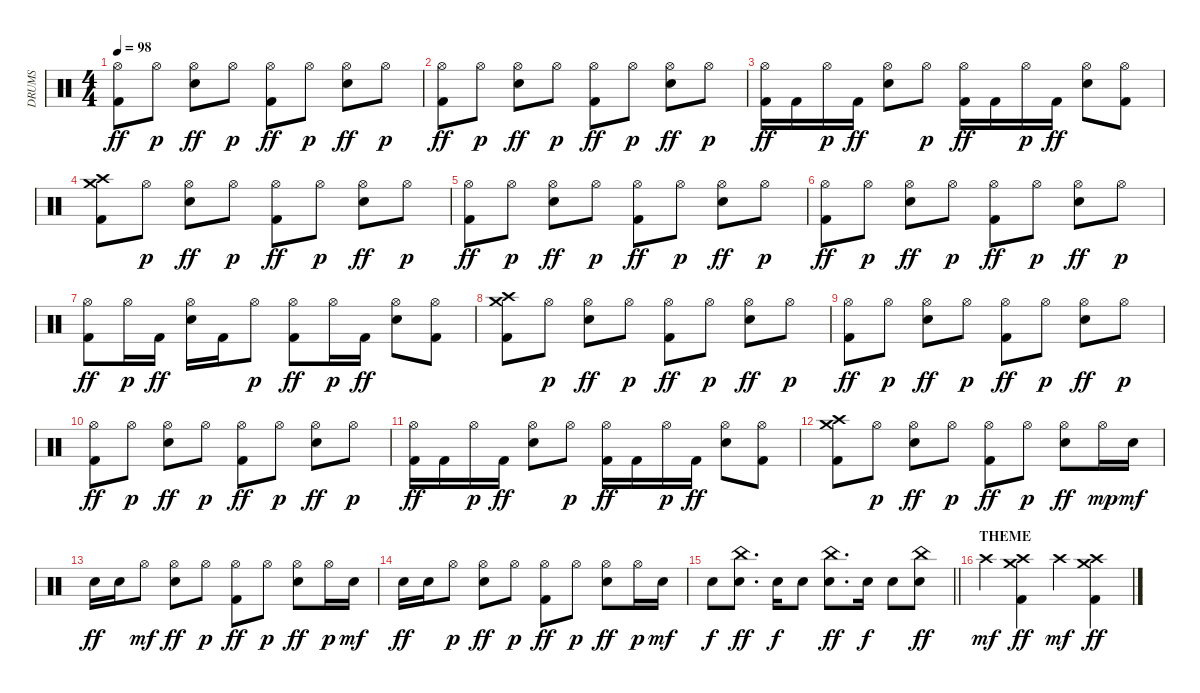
\track ("DRUMS" "DRUMS") {instrument percussion}
\staff {score}
\articulation defaults
\ts (4 4)
\tempo 98
\clef neutral
\ks c
("Hi-Hat (open)" "Kick (hit) 2").8{dy ff} "Hi-Hat (open)".8{dy p} ("Hi-Hat (open)" "Snare (hit) 2").8{dy ff} "Hi-Hat (open)".8{dy p} ("Hi-Hat (open)" "Kick (hit) 2").8{dy ff} "Hi-Hat (open)".8{dy p} ("Hi-Hat (open)" "Snare (hit) 2").8{dy ff} "Hi-Hat (open)".8{dy p} |
("Hi-Hat (open)" "Kick (hit) 2").8{dy ff} "Hi-Hat (open)".8{dy p} ("Hi-Hat (open)" "Snare (hit) 2").8{dy ff} "Hi-Hat (open)".8{dy p} ("Hi-Hat (open)" "Kick (hit) 2").8{dy ff} "Hi-Hat (open)".8{dy p} ("Hi-Hat (open)" "Snare (hit) 2").8{dy ff} "Hi-Hat (open)".8{dy p} |
("Hi-Hat (open)" "Kick (hit) 2").16{dy ff} "Kick (hit) 2".16 "Hi-Hat (open)".16{dy p} "Kick (hit) 2".16{dy ff} ("Hi-Hat (open)" "Snare (hit) 2").8 "Hi-Hat (open)".8{dy p} ("Hi-Hat (open)" "Kick (hit) 2").16{dy ff} "Kick (hit) 2".16 "Hi-Hat (open)".16{dy p} "Kick (hit) 2".16{dy ff} ("Hi-Hat (open)" "Snare (hit) 2").8 ("Hi-Hat (open)" "Kick (hit) 2").8 |
("Crash high (hit)" "Crash medium (hit)" "Kick (hit) 2").8 "Hi-Hat (open)".8{dy p} ("Hi-Hat (open)" "Snare (hit) 2").8{dy ff} "Hi-Hat (open)".8{dy p} ("Hi-Hat (open)" "Kick (hit) 2").8{dy ff} "Hi-Hat (open)".8{dy p} ("Hi-Hat (open)" "Snare (hit) 2").8{dy ff} "Hi-Hat (open)".8{dy p} |
("Hi-Hat (open)" "Kick (hit) 2").8{dy ff} "Hi-Hat (open)".8{dy p} ("Hi-Hat (open)" "Snare (hit) 2").8{dy ff} "Hi-Hat (open)".8{dy p} ("Hi-Hat (open)" "Kick (hit) 2").8{dy ff} "Hi-Hat (open)".8{dy p} ("Hi-Hat (open)" "Snare (hit) 2").8{dy ff} "Hi-Hat (open)".8{dy p} |
("Hi-Hat (open)" "Kick (hit) 2").8{dy ff} "Hi-Hat (open)".8{dy p} ("Hi-Hat (open)" "Snare (hit) 2").8{dy ff} "Hi-Hat (open)".8{dy p} ("Hi-Hat (open)" "Kick (hit) 2").8{dy ff} "Hi-Hat (open)".8{dy p} ("Hi-Hat (open)" "Snare (hit) 2").8{dy ff} "Hi-Hat (open)".8{dy p} |
("Hi-Hat (open)" "Kick (hit) 2").8{dy ff} "Hi-Hat (open)".16{dy p} "Kick (hit) 2".16{dy ff} ("Hi-Hat (open)" "Snare (hit) 2").16 "Kick (hit) 2".16 "Hi-Hat (open)".8{dy p} ("Hi-Hat (open)" "Kick (hit) 2").8{dy ff} "Hi-Hat (open)".16{dy p} "Kick (hit) 2".16{dy ff} ("Hi-Hat (open)" "Snare (hit) 2").8 ("Hi-Hat (open)" "Kick (hit) 2").8 |
("Crash high (hit)" "Crash medium (hit)" "Kick (hit) 2").8 "Hi-Hat (open)".8{dy p} ("Hi-Hat (open)" "Snare (hit) 2").8{dy ff} "Hi-Hat (open)".8{dy p} ("Hi-Hat (open)" "Kick (hit) 2").8{dy ff} "Hi-Hat (open)".8{dy p} ("Hi-Hat (open)" "Snare (hit) 2").8{dy ff} "Hi-Hat (open)".8{dy p} |
("Hi-Hat (open)" "Kick (hit) 2").8{dy ff} "Hi-Hat (open)".8{dy p} ("Hi-Hat (open)" "Snare (hit) 2").8{dy ff} "Hi-Hat (open)".8{dy p} ("Hi-Hat (open)" "Kick (hit) 2").8{dy ff} "Hi-Hat (open)".8{dy p} ("Hi-Hat (open)" "Snare (hit) 2").8{dy ff} "Hi-Hat (open)".8{dy p} |
("Hi-Hat (open)" "Kick (hit) 2").8{dy ff} "Hi-Hat (open)".8{dy p} ("Hi-Hat (open)" "Snare (hit) 2").8{dy ff} "Hi-Hat (open)".8{dy p} ("Hi-Hat (open)" "Kick (hit) 2").8{dy ff} "Hi-Hat (open)".8{dy p} ("Hi-Hat (open)" "Snare (hit) 2").8{dy ff} "Hi-Hat (open)".8{dy p} |
("Hi-Hat (open)" "Kick (hit) 2").16{dy ff} "Kick (hit) 2".16 "Hi-Hat (open)".16{dy p} "Kick (hit) 2".16{dy ff} ("Hi-Hat (open)" "Snare (hit) 2").8 "Hi-Hat (open)".8{dy p} ("Hi-Hat (open)" "Kick (hit) 2").16{dy ff} "Kick (hit) 2".16 "Hi-Hat (open)".16{dy p} "Kick (hit) 2".16{dy ff} ("Hi-Hat (open)" "Snare (hit) 2").8 ("Hi-Hat (open)" "Kick (hit) 2").8 |
("Crash high (hit)" "Crash medium (hit)" "Kick (hit) 2").8 "Hi-Hat (open)".8{dy p} ("Hi-Hat (open)" "Snare (hit) 2").8{dy ff} "Hi-Hat (open)".8{dy p} ("Hi-Hat (open)" "Kick (hit) 2").8{dy ff} "Hi-Hat (open)".8{dy p} ("Hi-Hat (open)" "Snare (hit) 2").8{dy ff} "Hi-Hat (open)".16{dy mp} "Snare (hit) 2".16{dy mf} |
"Snare (hit) 2".16{dy ff} "Snare (hit) 2".16 "Hi-Hat (open)".8{dy mf} ("Hi-Hat (open)" "Snare (hit) 2").8{dy ff} "Hi-Hat (open)".8{dy p} ("Hi-Hat (open)" "Kick (hit) 2").8{dy ff} "Hi-Hat (open)".8{dy p} ("Hi-Hat (open)" "Snare (hit) 2").8{dy ff} "Hi-Hat (open)".16{dy p} "Snare (hit) 2".16{dy mf} |
"Snare (hit) 2".16{dy ff} "Snare (hit) 2".16 "Hi-Hat (open)".8{dy p} ("Hi-Hat (open)" "Snare (hit) 2").8{dy ff} "Hi-Hat (open)".8{dy p} ("Hi-Hat (open)" "Kick (hit) 2").8{dy ff} "Hi-Hat (open)".8{dy p} ("Hi-Hat (open)" "Snare (hit) 2").8{dy ff} "Hi-Hat (open)".16{dy p} "Snare (hit) 2".16{dy mf} |
\barLineRight lightlight "Snare (hit) 2".8{dy f}
("China (hit)" "Snare (hit) 2").8{d dy ff} "Snare (hit) 2".16{dy f} "Snare (hit) 2".8 ("China (hit)" "Snare (hit) 2").8{d dy ff} "Snare (hit) 2".16{dy f} "Snare (hit) 2".8 ("China (hit)" "Snare (hit) 2").8{dy ff} |
\section ("" "THEME")
"Crash high (hit)".4{dy mf} ("Crash high (hit)" "Crash medium (hit)" "Kick (hit) 2").4{dy ff} "Crash high (hit)".4{dy mf} ("Crash high (hit)" "Crash medium (hit)" "Kick (hit) 2").4{dy ff}
